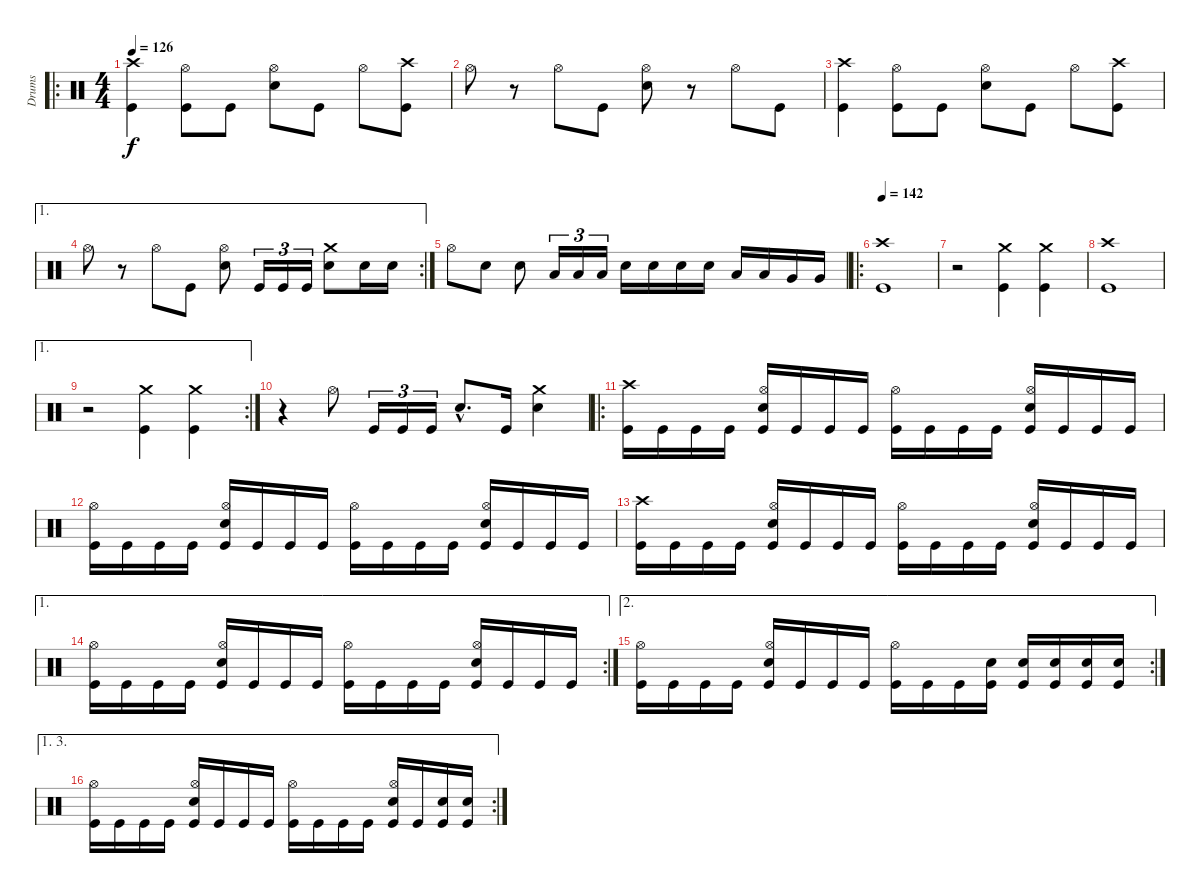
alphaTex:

\track ("Drums" "Drums") {instrument percussion}
\staff {score}
\articulation defaults
\ro
\ts (4 4)
\tempo 126
\clef neutral
\ks c
("Crash high (hit)" "Kick (hit)").4{dy f} ("Hi-Hat (open)" "Kick (hit)").8 "Kick (hit)".8 ("Hi-Hat (open)" "Electric Snare (hit)").8 "Kick (hit)".8 "Hi-Hat (open)".8 ("Crash high (hit)" "Kick (hit)").8 |
"Hi-Hat (open)".8 r.8 "Hi-Hat (open)".8 "Kick (hit)".8 ("Hi-Hat (open)" "Electric Snare (hit)").8 r.8 "Hi-Hat (open)".8 "Kick (hit)".8 |
("Crash high (hit)" "Kick (hit)").4 ("Hi-Hat (open)" "Kick (hit)").8 "Kick (hit)".8 ("Hi-Hat (open)" "Electric Snare (hit)").8 "Kick (hit)".8 "Hi-Hat (open)".8 ("Crash high (hit)" "Kick (hit)").8 |
\ae 1
\rc 2 "Hi-Hat (open)".8
r.8 "Hi-Hat (open)".8 "Kick (hit)".8 ("Hi-Hat (open)" "Electric Snare (hit)").8 "Kick (hit)".16{tu (3 2)} "Kick (hit)".16{tu (3 2)} "Kick (hit)".16{tu (3 2)} ("Crash medium (hit)" "Electric Snare (hit)").8 "Electric Snare (hit)".16 "Electric Snare (hit)".16 |
"Hi-Hat (open)".8 "Electric Snare (hit)".8 "Electric Snare (hit)".8 "Low Tom (hit)".16{tu (3 2)} "Low Tom (hit)".16{tu (3 2)} "Low Tom (hit)".16{tu (3 2)} "Electric Snare (hit)".16 "Electric Snare (hit)".16 "Electric Snare (hit)".16 "Electric Snare (hit)".16 "Low Tom (hit)".16 "Low Tom (hit)".16 "Very Low Tom (hit)".16 "Very Low Tom (hit)".16 |
\ro
\tempo 142
("Crash high (hit)" "Kick (hit)").1 |
r.2 ("Crash medium (hit)" "Kick (hit)").4 ("Crash medium (hit)" "Kick (hit)").4 |
("Crash high (hit)" "Kick (hit)").1 |
\ae 1
\rc 2
r.2 ("Crash medium (hit)" "Kick (hit)").4 ("Crash medium (hit)" "Kick (hit)").4 |
r.4 "Hi-Hat (open)".8 "Kick (hit)".16{tu (3 2)} "Kick (hit)".16{tu (3 2)} "Kick (hit)".16{tu (3 2)} "Electric Snare (hit)"{hac}.8{d} "Kick (hit)".16 ("Crash medium (hit)" "Electric Snare (hit)").4 |
\ro
("Crash high (hit)" "Kick (hit)").16 "Kick (hit)".16 "Kick (hit)".16 "Kick (hit)".16 ("Hi-Hat (open)" "Electric Snare (hit)" "Kick (hit)").16 "Kick (hit)".16 "Kick (hit)".16 "Kick (hit)".16 ("Hi-Hat (open)" "Kick (hit)").16 "Kick (hit)".16 "Kick (hit)".16 "Kick (hit)".16 ("Hi-Hat (open)" "Electric Snare (hit)" "Kick (hit)").16 "Kick (hit)".16 "Kick (hit)".16 "Kick (hit)".16 |
("Hi-Hat (open)" "Kick (hit)").16 "Kick (hit)".16 "Kick (hit)".16 "Kick (hit)".16 ("Hi-Hat (open)" "Electric Snare (hit)" "Kick (hit)").16 "Kick (hit)".16 "Kick (hit)".16 "Kick (hit)".16 ("Hi-Hat (open)" "Kick (hit)").16 "Kick (hit)".16 "Kick (hit)".16 "Kick (hit)".16 ("Hi-Hat (open)" "Electric Snare (hit)" "Kick (hit)").16 "Kick (hit)".16 "Kick (hit)".16 "Kick (hit)".16 |
("Crash high (hit)" "Kick (hit)").16 "Kick (hit)".16 "Kick (hit)".16 "Kick (hit)".16 ("Hi-Hat (open)" "Electric Snare (hit)" "Kick (hit)").16 "Kick (hit)".16 "Kick (hit)".16 "Kick (hit)".16 ("Hi-Hat (open)" "Kick (hit)").16 "Kick (hit)".16 "Kick (hit)".16 "Kick (hit)".16 ("Hi-Hat (open)" "Electric Snare (hit)" "Kick (hit)").16 "Kick (hit)".16 "Kick (hit)".16 "Kick (hit)".16 |
\ae 1
\rc 2
("Hi-Hat (open)" "Kick (hit)").16 "Kick (hit)".16 "Kick (hit)".16 "Kick (hit)".16 ("Hi-Hat (open)" "Electric Snare (hit)" "Kick (hit)").16 "Kick (hit)".16 "Kick (hit)".16 "Kick (hit)".16 ("Hi-Hat (open)" "Kick (hit)").16 "Kick (hit)".16 "Kick (hit)".16 "Kick (hit)".16 ("Hi-Hat (open)" "Electric Snare (hit)" "Kick (hit)").16 "Kick (hit)".16 "Kick (hit)".16 "Kick (hit)".16 |
\ae 2
\rc 2
("Hi-Hat (open)" "Kick (hit)").16 "Kick (hit)".16 "Kick (hit)".16 "Kick (hit)".16 ("Hi-Hat (open)" "Electric Snare (hit)" "Kick (hit)").16 "Kick (hit)".16 "Kick (hit)".16 "Kick (hit)".16 ("Hi-Hat (open)" "Kick (hit)").16 "Kick (hit)".16 "Kick (hit)".16 ("Electric Snare (hit)" "Kick (hit)").16 ("Electric Snare (hit)" "Kick (hit)").16 ("Electric Snare (hit)" "Kick (hit)").16 ("Electric Snare (hit)" "Kick (hit)").16 ("Electric Snare (hit)" "Kick (hit)").16 |
\ae (1 3)
\rc 2
("Hi-Hat (open)" "Kick (hit)").16 "Kick (hit)".16 "Kick (hit)".16 "Kick (hit)".16 ("Hi-Hat (open)" "Electric Snare (hit)" "Kick (hit)").16 "Kick (hit)".16 "Kick (hit)".16 "Kick (hit)".16 ("Hi-Hat (open)" "Kick (hit)").16 "Kick (hit)".16 "Kick (hit)".16 "Kick (hit)".16 ("Hi-Hat (open)" "Electric Snare (hit)" "Kick (hit)").16 "Kick (hit)".16 ("Electric Snare (hit)" "Kick (hit)").16 ("Electric Snare (hit)" "Kick (hit)").16
